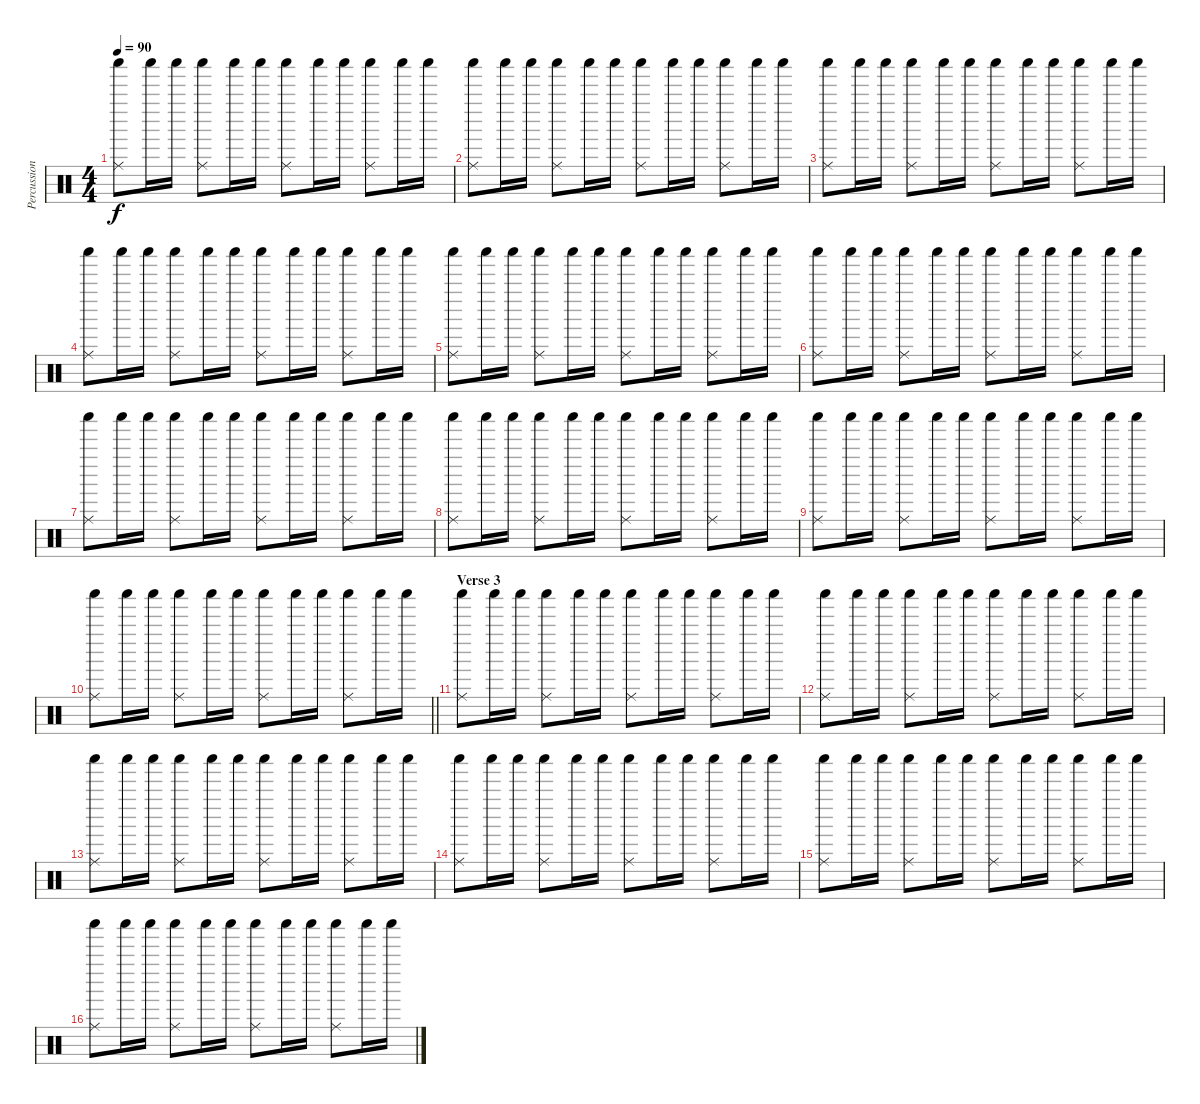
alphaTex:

\track ("Percussion (Chris Maitland)" "Percussion") {instrument percussion}
\staff {score}
\articulation defaults
\ts (4 4)
\tempo 90
\clef neutral
\ks c
("Ride (middle)" "Shaker (hit)").8{dy f} "Shaker (hit)".16 "Shaker (hit)".16 ("Ride (middle)" "Shaker (hit)").8 "Shaker (hit)".16 "Shaker (hit)".16 ("Ride (middle)" "Shaker (hit)").8 "Shaker (hit)".16 "Shaker (hit)".16 ("Ride (middle)" "Shaker (hit)").8 "Shaker (hit)".16 "Shaker (hit)".16 |
("Ride (middle)" "Shaker (hit)").8 "Shaker (hit)".16 "Shaker (hit)".16 ("Ride (middle)" "Shaker (hit)").8 "Shaker (hit)".16 "Shaker (hit)".16 ("Ride (middle)" "Shaker (hit)").8 "Shaker (hit)".16 "Shaker (hit)".16 ("Ride (middle)" "Shaker (hit)").8 "Shaker (hit)".16 "Shaker (hit)".16 |
("Ride (middle)" "Shaker (hit)").8 "Shaker (hit)".16 "Shaker (hit)".16 ("Ride (middle)" "Shaker (hit)").8 "Shaker (hit)".16 "Shaker (hit)".16 ("Ride (middle)" "Shaker (hit)").8 "Shaker (hit)".16 "Shaker (hit)".16 ("Ride (middle)" "Shaker (hit)").8 "Shaker (hit)".16 "Shaker (hit)".16 |
("Ride (middle)" "Shaker (hit)").8 "Shaker (hit)".16 "Shaker (hit)".16 ("Ride (middle)" "Shaker (hit)").8 "Shaker (hit)".16 "Shaker (hit)".16 ("Ride (middle)" "Shaker (hit)").8 "Shaker (hit)".16 "Shaker (hit)".16 ("Ride (middle)" "Shaker (hit)").8 "Shaker (hit)".16 "Shaker (hit)".16 |
("Ride (middle)" "Shaker (hit)").8 "Shaker (hit)".16 "Shaker (hit)".16 ("Ride (middle)" "Shaker (hit)").8 "Shaker (hit)".16 "Shaker (hit)".16 ("Ride (middle)" "Shaker (hit)").8 "Shaker (hit)".16 "Shaker (hit)".16 ("Ride (middle)" "Shaker (hit)").8 "Shaker (hit)".16 "Shaker (hit)".16 |
("Ride (middle)" "Shaker (hit)").8 "Shaker (hit)".16 "Shaker (hit)".16 ("Ride (middle)" "Shaker (hit)").8 "Shaker (hit)".16 "Shaker (hit)".16 ("Ride (middle)" "Shaker (hit)").8 "Shaker (hit)".16 "Shaker (hit)".16 ("Ride (middle)" "Shaker (hit)").8 "Shaker (hit)".16 "Shaker (hit)".16 |
("Ride (middle)" "Shaker (hit)").8 "Shaker (hit)".16 "Shaker (hit)".16 ("Ride (middle)" "Shaker (hit)").8 "Shaker (hit)".16 "Shaker (hit)".16 ("Ride (middle)" "Shaker (hit)").8 "Shaker (hit)".16 "Shaker (hit)".16 ("Ride (middle)" "Shaker (hit)").8 "Shaker (hit)".16 "Shaker (hit)".16 |
("Ride (middle)" "Shaker (hit)").8 "Shaker (hit)".16 "Shaker (hit)".16 ("Ride (middle)" "Shaker (hit)").8 "Shaker (hit)".16 "Shaker (hit)".16 ("Ride (middle)" "Shaker (hit)").8 "Shaker (hit)".16 "Shaker (hit)".16 ("Ride (middle)" "Shaker (hit)").8 "Shaker (hit)".16 "Shaker (hit)".16 |
("Ride (middle)" "Shaker (hit)").8 "Shaker (hit)".16 "Shaker (hit)".16 ("Ride (middle)" "Shaker (hit)").8 "Shaker (hit)".16 "Shaker (hit)".16 ("Ride (middle)" "Shaker (hit)").8 "Shaker (hit)".16 "Shaker (hit)".16 ("Ride (middle)" "Shaker (hit)").8 "Shaker (hit)".16 "Shaker (hit)".16 |
\barLineRight lightlight
("Ride (middle)" "Shaker (hit)").8 "Shaker (hit)".16 "Shaker (hit)".16 ("Ride (middle)" "Shaker (hit)").8 "Shaker (hit)".16 "Shaker (hit)".16 ("Ride (middle)" "Shaker (hit)").8 "Shaker (hit)".16 "Shaker (hit)".16 ("Ride (middle)" "Shaker (hit)").8 "Shaker (hit)".16 "Shaker (hit)".16 |
\section ("" "Verse 3")
("Ride (middle)" "Shaker (hit)").8 "Shaker (hit)".16 "Shaker (hit)".16 ("Ride (middle)" "Shaker (hit)").8 "Shaker (hit)".16 "Shaker (hit)".16 ("Ride (middle)" "Shaker (hit)").8 "Shaker (hit)".16 "Shaker (hit)".16 ("Ride (middle)" "Shaker (hit)").8 "Shaker (hit)".16 "Shaker (hit)".16 |
("Ride (middle)" "Shaker (hit)").8 "Shaker (hit)".16 "Shaker (hit)".16 ("Ride (middle)" "Shaker (hit)").8 "Shaker (hit)".16 "Shaker (hit)".16 ("Ride (middle)" "Shaker (hit)").8 "Shaker (hit)".16 "Shaker (hit)".16 ("Ride (middle)" "Shaker (hit)").8 "Shaker (hit)".16 "Shaker (hit)".16 |
("Ride (middle)" "Shaker (hit)").8 "Shaker (hit)".16 "Shaker (hit)".16 ("Ride (middle)" "Shaker (hit)").8 "Shaker (hit)".16 "Shaker (hit)".16 ("Ride (middle)" "Shaker (hit)").8 "Shaker (hit)".16 "Shaker (hit)".16 ("Ride (middle)" "Shaker (hit)").8 "Shaker (hit)".16 "Shaker (hit)".16 |
("Ride (middle)" "Shaker (hit)").8 "Shaker (hit)".16 "Shaker (hit)".16 ("Ride (middle)" "Shaker (hit)").8 "Shaker (hit)".16 "Shaker (hit)".16 ("Ride (middle)" "Shaker (hit)").8 "Shaker (hit)".16 "Shaker (hit)".16 ("Ride (middle)" "Shaker (hit)").8 "Shaker (hit)".16 "Shaker (hit)".16 |
("Ride (middle)" "Shaker (hit)").8 "Shaker (hit)".16 "Shaker (hit)".16 ("Ride (middle)" "Shaker (hit)").8 "Shaker (hit)".16 "Shaker (hit)".16 ("Ride (middle)" "Shaker (hit)").8 "Shaker (hit)".16 "Shaker (hit)".16 ("Ride (middle)" "Shaker (hit)").8 "Shaker (hit)".16 "Shaker (hit)".16 |
("Ride (middle)" "Shaker (hit)").8 "Shaker (hit)".16 "Shaker (hit)".16 ("Ride (middle)" "Shaker (hit)").8 "Shaker (hit)".16 "Shaker (hit)".16 ("Ride (middle)" "Shaker (hit)").8 "Shaker (hit)".16 "Shaker (hit)".16 ("Ride (middle)" "Shaker (hit)").8 "Shaker (hit)".16 "Shaker (hit)".16
